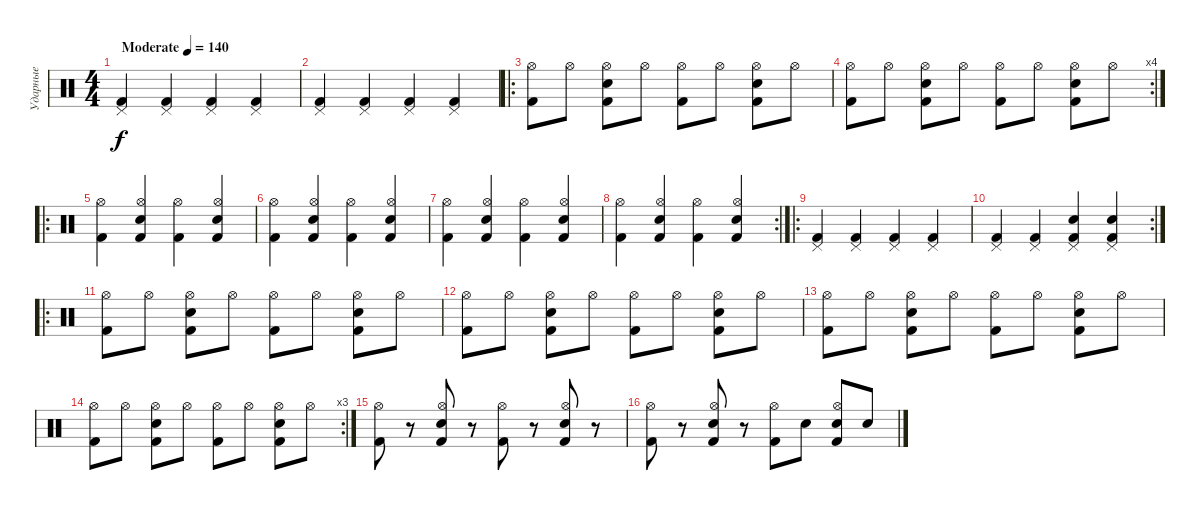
\track ("Ударные" "Ударные") {instrument percussion}
\staff {score}
\articulation defaults
\ts (4 4)
\tempo (140 "Moderate")
\clef neutral
\ks c
("Pedal Hi-Hat (hit)" "Kick (hit) 2").4{dy f} ("Pedal Hi-Hat (hit)" "Kick (hit) 2").4 ("Pedal Hi-Hat (hit)" "Kick (hit) 2").4 ("Pedal Hi-Hat (hit)" "Kick (hit) 2").4 |
("Pedal Hi-Hat (hit)" "Kick (hit) 2").4 ("Pedal Hi-Hat (hit)" "Kick (hit) 2").4 ("Pedal Hi-Hat (hit)" "Kick (hit) 2").4 ("Pedal Hi-Hat (hit)" "Kick (hit) 2").4 |
\ro
("Hi-Hat (open)" "Kick (hit) 2").8 "Hi-Hat (open)".8 ("Hi-Hat (open)" "Electric Snare (hit)" "Kick (hit) 2").8 "Hi-Hat (open)".8 ("Hi-Hat (open)" "Kick (hit) 2").8 "Hi-Hat (open)".8 ("Hi-Hat (open)" "Electric Snare (hit)" "Kick (hit) 2").8 "Hi-Hat (open)".8 |
\rc 4
("Hi-Hat (open)" "Kick (hit) 2").8 "Hi-Hat (open)".8 ("Hi-Hat (open)" "Electric Snare (hit)" "Kick (hit) 2").8 "Hi-Hat (open)".8 ("Hi-Hat (open)" "Kick (hit) 2").8 "Hi-Hat (open)".8 ("Hi-Hat (open)" "Electric Snare (hit)" "Kick (hit) 2").8 "Hi-Hat (open)".8 |
\ro
("Hi-Hat (open)" "Kick (hit) 2").4 ("Hi-Hat (open)" "Electric Snare (hit)" "Kick (hit) 2").4 ("Hi-Hat (open)" "Kick (hit) 2").4 ("Hi-Hat (open)" "Electric Snare (hit)" "Kick (hit) 2").4 |
("Hi-Hat (open)" "Kick (hit) 2").4 ("Hi-Hat (open)" "Electric Snare (hit)" "Kick (hit) 2").4 ("Hi-Hat (open)" "Kick (hit) 2").4 ("Hi-Hat (open)" "Electric Snare (hit)" "Kick (hit) 2").4 |
("Hi-Hat (open)" "Kick (hit) 2").4 ("Hi-Hat (open)" "Electric Snare (hit)" "Kick (hit) 2").4 ("Hi-Hat (open)" "Kick (hit) 2").4 ("Hi-Hat (open)" "Electric Snare (hit)" "Kick (hit) 2").4 |
\rc 2
("Hi-Hat (open)" "Kick (hit) 2").4 ("Hi-Hat (open)" "Electric Snare (hit)" "Kick (hit) 2").4 ("Hi-Hat (open)" "Kick (hit) 2").4 ("Hi-Hat (open)" "Electric Snare (hit)" "Kick (hit) 2").4 |
\ro
("Pedal Hi-Hat (hit)" "Kick (hit) 2").4 ("Pedal Hi-Hat (hit)" "Kick (hit) 2").4 ("Pedal Hi-Hat (hit)" "Kick (hit) 2").4 ("Pedal Hi-Hat (hit)" "Kick (hit) 2").4 |
\rc 2
("Pedal Hi-Hat (hit)" "Kick (hit) 2").4 ("Pedal Hi-Hat (hit)" "Kick (hit) 2").4 ("Pedal Hi-Hat (hit)" "Electric Snare (hit)" "Kick (hit) 2").4 ("Pedal Hi-Hat (hit)" "Electric Snare (hit)" "Kick (hit) 2").4 |
\ro
("Hi-Hat (open)" "Kick (hit) 2").8 "Hi-Hat (open)".8 ("Hi-Hat (open)" "Electric Snare (hit)" "Kick (hit) 2").8 "Hi-Hat (open)".8 ("Hi-Hat (open)" "Kick (hit) 2").8 "Hi-Hat (open)".8 ("Hi-Hat (open)" "Electric Snare (hit)" "Kick (hit) 2").8 "Hi-Hat (open)".8 |
("Hi-Hat (open)" "Kick (hit) 2").8 "Hi-Hat (open)".8 ("Hi-Hat (open)" "Electric Snare (hit)" "Kick (hit) 2").8 "Hi-Hat (open)".8 ("Hi-Hat (open)" "Kick (hit) 2").8 "Hi-Hat (open)".8 ("Hi-Hat (open)" "Electric Snare (hit)" "Kick (hit) 2").8 "Hi-Hat (open)".8 |
("Hi-Hat (open)" "Kick (hit) 2").8 "Hi-Hat (open)".8 ("Hi-Hat (open)" "Electric Snare (hit)" "Kick (hit) 2").8 "Hi-Hat (open)".8 ("Hi-Hat (open)" "Kick (hit) 2").8 "Hi-Hat (open)".8 ("Hi-Hat (open)" "Electric Snare (hit)" "Kick (hit) 2").8 "Hi-Hat (open)".8 |
\rc 3
("Hi-Hat (open)" "Kick (hit) 2").8 "Hi-Hat (open)".8 ("Hi-Hat (open)" "Electric Snare (hit)" "Kick (hit) 2").8 "Hi-Hat (open)".8 ("Hi-Hat (open)" "Kick (hit) 2").8 "Hi-Hat (open)".8 ("Hi-Hat (open)" "Electric Snare (hit)" "Kick (hit) 2").8 "Hi-Hat (open)".8 |
("Hi-Hat (open)" "Kick (hit) 2").8 r.8 ("Hi-Hat (open)" "Electric Snare (hit)" "Kick (hit) 2").8 r.8 ("Hi-Hat (open)" "Kick (hit) 2").8 r.8 ("Hi-Hat (open)" "Electric Snare (hit)" "Kick (hit) 2").8 r.8 |
("Hi-Hat (open)" "Kick (hit) 2").8 r.8 ("Hi-Hat (open)" "Electric Snare (hit)" "Kick (hit) 2").8 r.8 ("Hi-Hat (open)" "Kick (hit) 2").8 "Electric Snare (hit)".8 ("Hi-Hat (open)" "Electric Snare (hit)" "Kick (hit) 2").8 "Electric Snare (hit)".8
